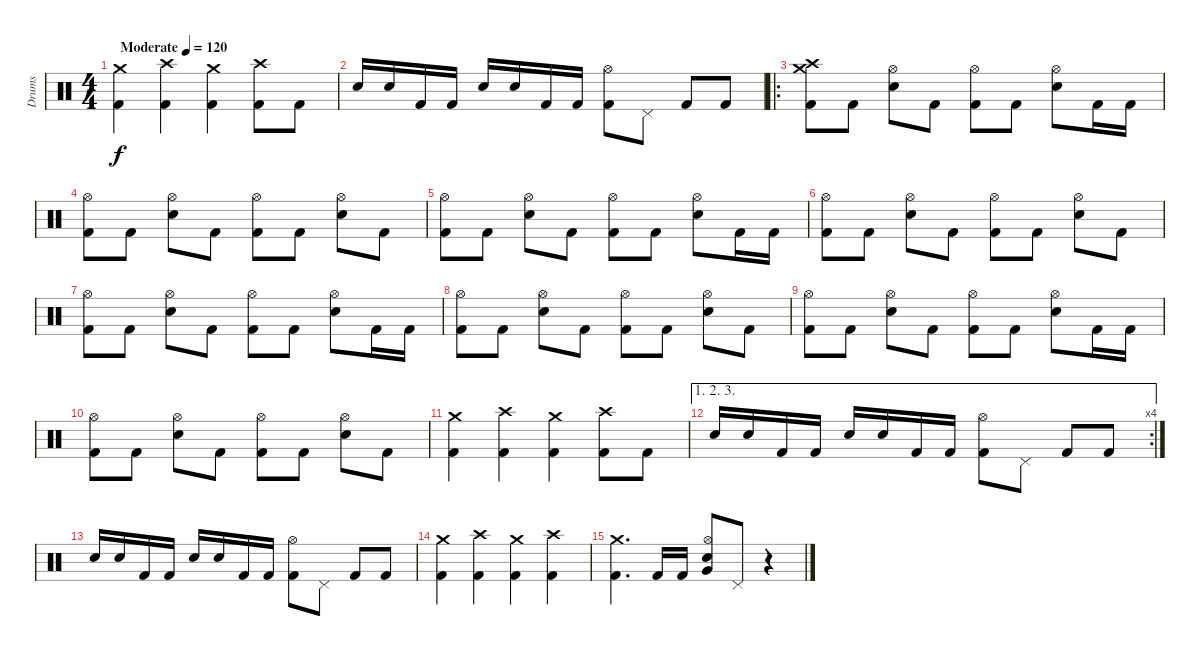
\track ("Drums" "Drums") {instrument percussion}
\staff {score}
\articulation defaults
\ts (4 4)
\tempo (120 "Moderate")
\clef neutral
\ks c
("Kick (hit) 2" "Crash medium (hit)").4{dy f} ("Kick (hit) 2" "Crash high (hit)").4 ("Kick (hit) 2" "Crash medium (hit)").4 ("Kick (hit) 2" "Crash high (hit)").8 "Kick (hit) 2".8 |
"Snare (hit) 2".16 "Snare (hit) 2".16 "Kick (hit) 2".16 "Kick (hit) 2".16 "Snare (hit) 2".16 "Snare (hit) 2".16 "Kick (hit) 2".16 "Kick (hit) 2".16 ("Kick (hit) 2" "Hi-Hat (open)").8 "Pedal Hi-Hat (hit)".8 "Kick (hit) 2".8 "Kick (hit) 2".8 |
\ro
("Kick (hit) 2" "Crash high (hit)" "Crash medium (hit)").8 "Kick (hit) 2".8 ("Snare (hit) 2" "Hi-Hat (open)").8 "Kick (hit) 2".8 ("Kick (hit) 2" "Hi-Hat (open)").8 "Kick (hit) 2".8 ("Snare (hit) 2" "Hi-Hat (open)").8 "Kick (hit) 2".16 "Kick (hit) 2".16 |
("Kick (hit) 2" "Hi-Hat (open)").8 "Kick (hit) 2".8 ("Snare (hit) 2" "Hi-Hat (open)").8 "Kick (hit) 2".8 ("Kick (hit) 2" "Hi-Hat (open)").8 "Kick (hit) 2".8 ("Snare (hit) 2" "Hi-Hat (open)").8 "Kick (hit) 2".8 |
("Kick (hit) 2" "Hi-Hat (open)").8 "Kick (hit) 2".8 ("Snare (hit) 2" "Hi-Hat (open)").8 "Kick (hit) 2".8 ("Kick (hit) 2" "Hi-Hat (open)").8 "Kick (hit) 2".8 ("Snare (hit) 2" "Hi-Hat (open)").8 "Kick (hit) 2".16 "Kick (hit) 2".16 |
("Kick (hit) 2" "Hi-Hat (open)").8 "Kick (hit) 2".8 ("Snare (hit) 2" "Hi-Hat (open)").8 "Kick (hit) 2".8 ("Kick (hit) 2" "Hi-Hat (open)").8 "Kick (hit) 2".8 ("Snare (hit) 2" "Hi-Hat (open)").8 "Kick (hit) 2".8 |
("Kick (hit) 2" "Hi-Hat (open)").8 "Kick (hit) 2".8 ("Snare (hit) 2" "Hi-Hat (open)").8 "Kick (hit) 2".8 ("Kick (hit) 2" "Hi-Hat (open)").8 "Kick (hit) 2".8 ("Snare (hit) 2" "Hi-Hat (open)").8 "Kick (hit) 2".16 "Kick (hit) 2".16 |
("Kick (hit) 2" "Hi-Hat (open)").8 "Kick (hit) 2".8 ("Snare (hit) 2" "Hi-Hat (open)").8 "Kick (hit) 2".8 ("Kick (hit) 2" "Hi-Hat (open)").8 "Kick (hit) 2".8 ("Snare (hit) 2" "Hi-Hat (open)").8 "Kick (hit) 2".8 |
("Kick (hit) 2" "Hi-Hat (open)").8 "Kick (hit) 2".8 ("Snare (hit) 2" "Hi-Hat (open)").8 "Kick (hit) 2".8 ("Kick (hit) 2" "Hi-Hat (open)").8 "Kick (hit) 2".8 ("Snare (hit) 2" "Hi-Hat (open)").8 "Kick (hit) 2".16 "Kick (hit) 2".16 |
("Kick (hit) 2" "Hi-Hat (open)").8 "Kick (hit) 2".8 ("Snare (hit) 2" "Hi-Hat (open)").8 "Kick (hit) 2".8 ("Kick (hit) 2" "Hi-Hat (open)").8 "Kick (hit) 2".8 ("Snare (hit) 2" "Hi-Hat (open)").8 "Kick (hit) 2".8 |
("Kick (hit) 2" "Crash medium (hit)").4 ("Kick (hit) 2" "Crash high (hit)").4 ("Kick (hit) 2" "Crash medium (hit)").4 ("Kick (hit) 2" "Crash high (hit)").8 "Kick (hit) 2".8 |
\ae (1 2 3)
\rc 4 "Snare (hit) 2".16 "Snare (hit) 2".16 "Kick (hit) 2".16 "Kick (hit) 2".16 "Snare (hit) 2".16 "Snare (hit) 2".16 "Kick (hit) 2".16 "Kick (hit) 2".16
("Kick (hit) 2" "Hi-Hat (open)").8 "Pedal Hi-Hat (hit)".8 "Kick (hit) 2".8 "Kick (hit) 2".8 |
"Snare (hit) 2".16 "Snare (hit) 2".16 "Kick (hit) 2".16 "Kick (hit) 2".16 "Snare (hit) 2".16 "Snare (hit) 2".16 "Kick (hit) 2".16 "Kick (hit) 2".16 ("Kick (hit) 2" "Hi-Hat (open)").8 "Pedal Hi-Hat (hit)".8 "Kick (hit) 2".8 "Kick (hit) 2".8 |
("Kick (hit) 2" "Crash medium (hit)").4 ("Kick (hit) 2" "Crash high (hit)").4 ("Kick (hit) 2" "Crash medium (hit)").4 ("Kick (hit) 2" "Crash high (hit)").4 |
("Kick (hit) 2" "Crash medium (hit)").4{d} "Kick (hit) 2".16 "Kick (hit) 2".16 ("Snare (hit) 2" "Very Low Tom (hit)" "Hi-Hat (open)").8 "Pedal Hi-Hat (hit)".8 r.4
